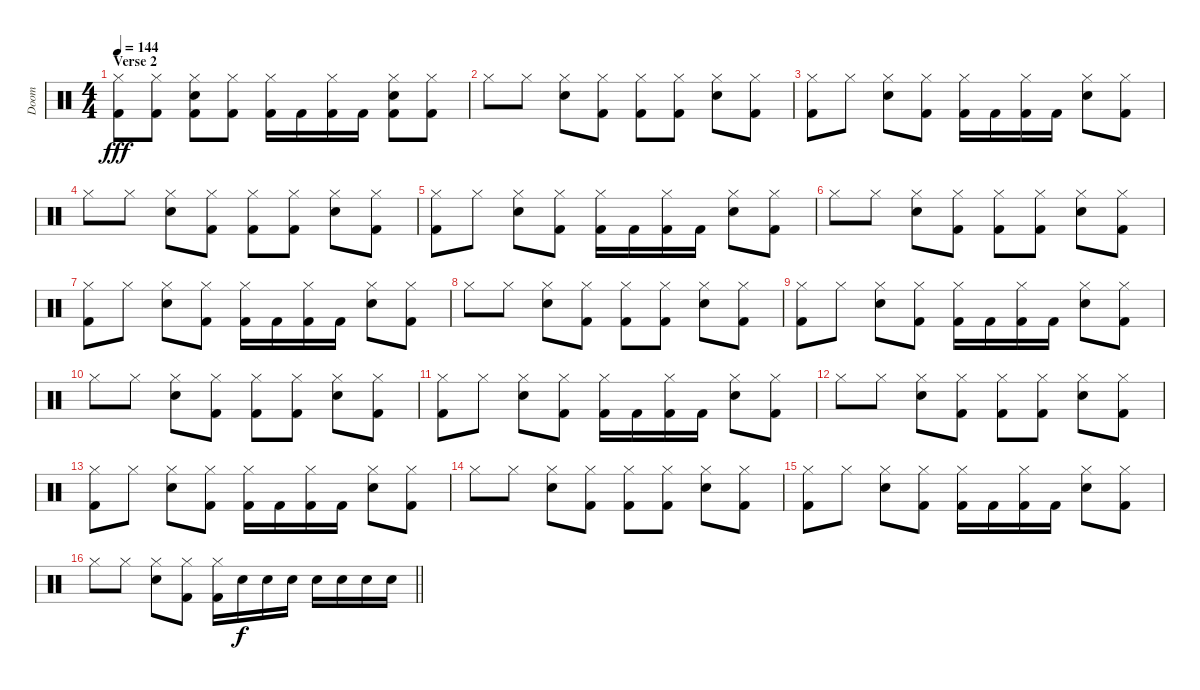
\track ("Doom" "Doom") {instrument percussion}
\staff {score}
\articulation defaults
\ts (4 4)
\section ("" "Verse 2")
\tempo 144
\clef neutral
\ks c
("Kick (hit) 2" "Hi-Hat (closed)").8{dy fff} ("Kick (hit) 2" "Hi-Hat (closed)").8 ("Kick (hit) 2" "Hi-Hat (closed)" "Electric Snare (hit)").8 ("Kick (hit) 2" "Hi-Hat (closed)").8 ("Kick (hit) 2" "Hi-Hat (closed)").16 "Kick (hit) 2".16 ("Kick (hit) 2" "Hi-Hat (closed)").16 "Kick (hit) 2".16 ("Kick (hit) 2" "Hi-Hat (closed)" "Electric Snare (hit)").8 ("Kick (hit) 2" "Hi-Hat (closed)").8 |
"Hi-Hat (closed)".8 "Hi-Hat (closed)".8 ("Hi-Hat (closed)" "Electric Snare (hit)").8 ("Kick (hit) 2" "Hi-Hat (closed)").8 ("Kick (hit) 2" "Hi-Hat (closed)").8 ("Hi-Hat (closed)" "Kick (hit) 2").8 ("Hi-Hat (closed)" "Electric Snare (hit)").8 ("Hi-Hat (closed)" "Kick (hit) 2").8 |
("Kick (hit) 2" "Hi-Hat (closed)").8 "Hi-Hat (closed)".8 ("Hi-Hat (closed)" "Electric Snare (hit)").8 ("Kick (hit) 2" "Hi-Hat (closed)").8 ("Kick (hit) 2" "Hi-Hat (closed)").16 "Kick (hit) 2".16 ("Kick (hit) 2" "Hi-Hat (closed)").16 "Kick (hit) 2".16 ("Hi-Hat (closed)" "Electric Snare (hit)").8 ("Kick (hit) 2" "Hi-Hat (closed)").8 |
"Hi-Hat (closed)".8 "Hi-Hat (closed)".8 ("Hi-Hat (closed)" "Electric Snare (hit)").8 ("Kick (hit) 2" "Hi-Hat (closed)").8 ("Kick (hit) 2" "Hi-Hat (closed)").8 ("Hi-Hat (closed)" "Kick (hit) 2").8 ("Hi-Hat (closed)" "Electric Snare (hit)").8 ("Hi-Hat (closed)" "Kick (hit) 2").8 |
("Kick (hit) 2" "Hi-Hat (closed)").8 "Hi-Hat (closed)".8 ("Hi-Hat (closed)" "Electric Snare (hit)").8 ("Kick (hit) 2" "Hi-Hat (closed)").8 ("Kick (hit) 2" "Hi-Hat (closed)").16 "Kick (hit) 2".16 ("Kick (hit) 2" "Hi-Hat (closed)").16 "Kick (hit) 2".16 ("Hi-Hat (closed)" "Electric Snare (hit)").8 ("Kick (hit) 2" "Hi-Hat (closed)").8 |
"Hi-Hat (closed)".8 "Hi-Hat (closed)".8 ("Hi-Hat (closed)" "Electric Snare (hit)").8 ("Kick (hit) 2" "Hi-Hat (closed)").8 ("Kick (hit) 2" "Hi-Hat (closed)").8 ("Hi-Hat (closed)" "Kick (hit) 2").8 ("Hi-Hat (closed)" "Electric Snare (hit)").8 ("Hi-Hat (closed)" "Kick (hit) 2").8 |
("Kick (hit) 2" "Hi-Hat (closed)").8 "Hi-Hat (closed)".8 ("Hi-Hat (closed)" "Electric Snare (hit)").8 ("Kick (hit) 2" "Hi-Hat (closed)").8 ("Kick (hit) 2" "Hi-Hat (closed)").16 "Kick (hit) 2".16 ("Kick (hit) 2" "Hi-Hat (closed)").16 "Kick (hit) 2".16 ("Hi-Hat (closed)" "Electric Snare (hit)").8 ("Kick (hit) 2" "Hi-Hat (closed)").8 |
"Hi-Hat (closed)".8 "Hi-Hat (closed)".8 ("Hi-Hat (closed)" "Electric Snare (hit)").8 ("Kick (hit) 2" "Hi-Hat (closed)").8 ("Kick (hit) 2" "Hi-Hat (closed)").8 ("Hi-Hat (closed)" "Kick (hit) 2").8 ("Hi-Hat (closed)" "Electric Snare (hit)").8 ("Hi-Hat (closed)" "Kick (hit) 2").8 |
("Kick (hit) 2" "Hi-Hat (closed)").8 "Hi-Hat (closed)".8 ("Hi-Hat (closed)" "Electric Snare (hit)").8 ("Kick (hit) 2" "Hi-Hat (closed)").8 ("Kick (hit) 2" "Hi-Hat (closed)").16 "Kick (hit) 2".16 ("Kick (hit) 2" "Hi-Hat (closed)").16 "Kick (hit) 2".16 ("Hi-Hat (closed)" "Electric Snare (hit)").8 ("Kick (hit) 2" "Hi-Hat (closed)").8 |
"Hi-Hat (closed)".8 "Hi-Hat (closed)".8 ("Hi-Hat (closed)" "Electric Snare (hit)").8 ("Kick (hit) 2" "Hi-Hat (closed)").8 ("Kick (hit) 2" "Hi-Hat (closed)").8 ("Hi-Hat (closed)" "Kick (hit) 2").8 ("Hi-Hat (closed)" "Electric Snare (hit)").8 ("Hi-Hat (closed)" "Kick (hit) 2").8 |
("Kick (hit) 2" "Hi-Hat (closed)").8 "Hi-Hat (closed)".8 ("Hi-Hat (closed)" "Electric Snare (hit)").8 ("Kick (hit) 2" "Hi-Hat (closed)").8 ("Kick (hit) 2" "Hi-Hat (closed)").16 "Kick (hit) 2".16 ("Kick (hit) 2" "Hi-Hat (closed)").16 "Kick (hit) 2".16 ("Hi-Hat (closed)" "Electric Snare (hit)").8 ("Kick (hit) 2" "Hi-Hat (closed)").8 |
"Hi-Hat (closed)".8 "Hi-Hat (closed)".8 ("Hi-Hat (closed)" "Electric Snare (hit)").8 ("Kick (hit) 2" "Hi-Hat (closed)").8 ("Kick (hit) 2" "Hi-Hat (closed)").8 ("Hi-Hat (closed)" "Kick (hit) 2").8 ("Hi-Hat (closed)" "Electric Snare (hit)").8 ("Hi-Hat (closed)" "Kick (hit) 2").8 |
("Kick (hit) 2" "Hi-Hat (closed)").8 "Hi-Hat (closed)".8 ("Hi-Hat (closed)" "Electric Snare (hit)").8 ("Kick (hit) 2" "Hi-Hat (closed)").8 ("Kick (hit) 2" "Hi-Hat (closed)").16 "Kick (hit) 2".16 ("Kick (hit) 2" "Hi-Hat (closed)").16 "Kick (hit) 2".16 ("Hi-Hat (closed)" "Electric Snare (hit)").8 ("Kick (hit) 2" "Hi-Hat (closed)").8 |
"Hi-Hat (closed)".8 "Hi-Hat (closed)".8 ("Hi-Hat (closed)" "Electric Snare (hit)").8 ("Kick (hit) 2" "Hi-Hat (closed)").8 ("Kick (hit) 2" "Hi-Hat (closed)").8 ("Hi-Hat (closed)" "Kick (hit) 2").8 ("Hi-Hat (closed)" "Electric Snare (hit)").8 ("Hi-Hat (closed)" "Kick (hit) 2").8 |
("Kick (hit) 2" "Hi-Hat (closed)").8 "Hi-Hat (closed)".8 ("Hi-Hat (closed)" "Electric Snare (hit)").8 ("Kick (hit) 2" "Hi-Hat (closed)").8 ("Kick (hit) 2" "Hi-Hat (closed)").16 "Kick (hit) 2".16 ("Kick (hit) 2" "Hi-Hat (closed)").16 "Kick (hit) 2".16 ("Hi-Hat (closed)" "Electric Snare (hit)").8 ("Kick (hit) 2" "Hi-Hat (closed)").8 |
\barLineRight lightlight "Hi-Hat (closed)".8 "Hi-Hat (closed)".8
("Hi-Hat (closed)" "Electric Snare (hit)").8 ("Kick (hit) 2" "Hi-Hat (closed)").8 ("Kick (hit) 2" "Hi-Hat (closed)").16 "Electric Snare (hit)".16{dy f} "Electric Snare (hit)".16 "Electric Snare (hit)".16 "Electric Snare (hit)".16 "Electric Snare (hit)".16 "Electric Snare (hit)".16 "Electric Snare (hit)".16
